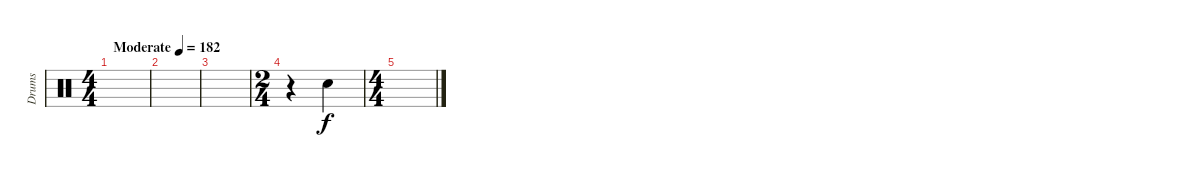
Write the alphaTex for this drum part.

\track ("Drums" "Drums") {instrument percussion}
\staff {score}
\articulation defaults
\ts (4 4)
\tempo (182 "Moderate")
\clef neutral
\ks c
|
|
|
\ts (2 4)
r.4 "Electric Snare (hit)".4 |
\ts (4 4)
